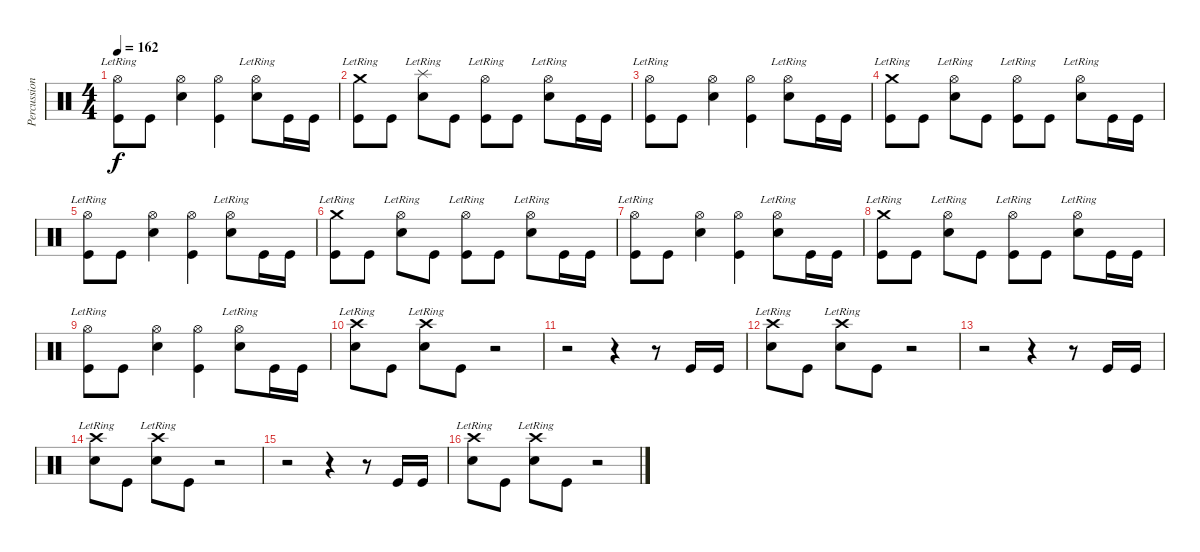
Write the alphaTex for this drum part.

\track ("Percussions" "Percussion") {instrument percussion}
\staff {score}
\articulation defaults
\ts (4 4)
\tempo 162
\clef neutral
\ks c
("Hi-Hat (open)"{lr} "Kick (hit)").8{dy f} "Kick (hit)".8 ("Hi-Hat (open)" "Snare (hit) 2").4 ("Hi-Hat (open)" "Kick (hit)").4 ("Hi-Hat (open)"{lr} "Snare (hit) 2").8 "Kick (hit)".16 "Kick (hit)".16 |
("Crash medium (hit)"{lr} "Kick (hit)").8 "Kick (hit)".8 ("Splash (hit)"{lr} "Snare (hit) 2").8 "Kick (hit)".8 ("Hi-Hat (open)"{lr} "Kick (hit)").8 "Kick (hit)".8 ("Hi-Hat (open)"{lr} "Snare (hit) 2").8 "Kick (hit)".16 "Kick (hit)".16 |
("Hi-Hat (open)"{lr} "Kick (hit)").8 "Kick (hit)".8 ("Hi-Hat (open)" "Snare (hit) 2").4 ("Hi-Hat (open)" "Kick (hit)").4 ("Hi-Hat (open)"{lr} "Snare (hit) 2").8 "Kick (hit)".16 "Kick (hit)".16 |
("Crash medium (hit)"{lr} "Kick (hit)").8 "Kick (hit)".8 ("Hi-Hat (open)"{lr} "Snare (hit) 2").8 "Kick (hit)".8 ("Hi-Hat (open)"{lr} "Kick (hit)").8 "Kick (hit)".8 ("Hi-Hat (open)"{lr} "Snare (hit) 2").8 "Kick (hit)".16 "Kick (hit)".16 |
("Hi-Hat (open)"{lr} "Kick (hit)").8 "Kick (hit)".8 ("Hi-Hat (open)" "Snare (hit) 2").4 ("Hi-Hat (open)" "Kick (hit)").4 ("Hi-Hat (open)"{lr} "Snare (hit) 2").8 "Kick (hit)".16 "Kick (hit)".16 |
("Crash medium (hit)"{lr} "Kick (hit)").8 "Kick (hit)".8 ("Hi-Hat (open)"{lr} "Snare (hit) 2").8 "Kick (hit)".8 ("Hi-Hat (open)"{lr} "Kick (hit)").8 "Kick (hit)".8 ("Hi-Hat (open)"{lr} "Snare (hit) 2").8 "Kick (hit)".16 "Kick (hit)".16 |
("Hi-Hat (open)"{lr} "Kick (hit)").8 "Kick (hit)".8 ("Hi-Hat (open)" "Snare (hit) 2").4 ("Hi-Hat (open)" "Kick (hit)").4 ("Hi-Hat (open)"{lr} "Snare (hit) 2").8 "Kick (hit)".16 "Kick (hit)".16 |
("Crash medium (hit)"{lr} "Kick (hit)").8 "Kick (hit)".8 ("Hi-Hat (open)"{lr} "Snare (hit) 2").8 "Kick (hit)".8 ("Hi-Hat (open)"{lr} "Kick (hit)").8 "Kick (hit)".8 ("Hi-Hat (open)"{lr} "Snare (hit) 2").8 "Kick (hit)".16 "Kick (hit)".16 |
("Hi-Hat (open)"{lr} "Kick (hit)").8 "Kick (hit)".8 ("Hi-Hat (open)" "Snare (hit) 2").4 ("Hi-Hat (open)" "Kick (hit)").4 ("Hi-Hat (open)"{lr} "Snare (hit) 2").8 "Kick (hit)".16 "Kick (hit)".16 |
("Crash high (hit)"{lr} "Snare (hit) 2").8 "Kick (hit)".8 ("Crash high (hit)"{lr} "Snare (hit) 2").8 "Kick (hit)".8 r.2 |
r.2 r.4 r.8 "Kick (hit)".16 "Kick (hit)".16 |
("Crash high (hit)"{lr} "Snare (hit) 2").8 "Kick (hit)".8 ("Crash high (hit)"{lr} "Snare (hit) 2").8 "Kick (hit)".8 r.2 |
r.2 r.4 r.8 "Kick (hit)".16 "Kick (hit)".16 |
("Crash high (hit)"{lr} "Snare (hit) 2").8 "Kick (hit)".8 ("Crash high (hit)"{lr} "Snare (hit) 2").8 "Kick (hit)".8 r.2 |
r.2 r.4 r.8 "Kick (hit)".16 "Kick (hit)".16 |
("Crash high (hit)"{lr} "Snare (hit) 2").8 "Kick (hit)".8 ("Crash high (hit)"{lr} "Snare (hit) 2").8 "Kick (hit)".8 r.2
